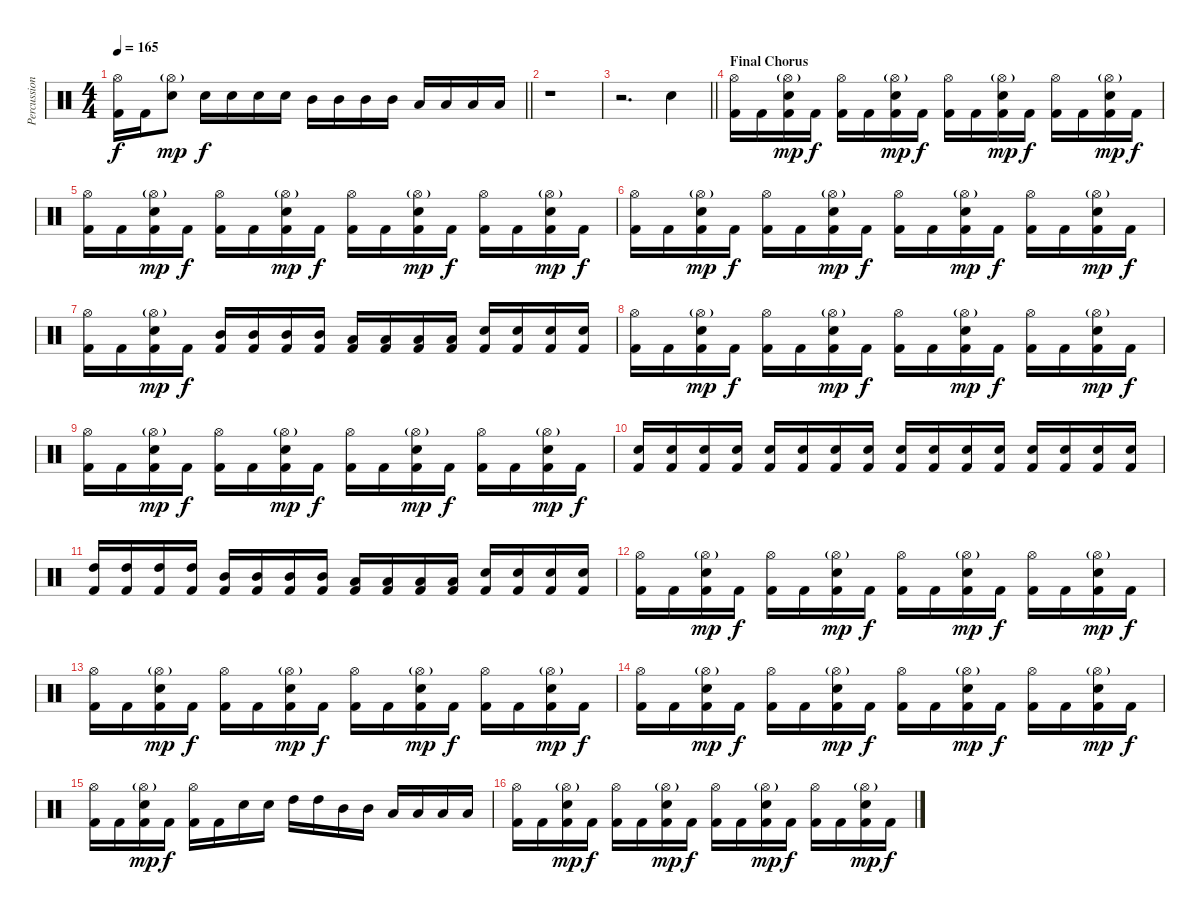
\track ("Percussion" "Percussion") {instrument percussion}
\staff {score}
\articulation defaults
\ts (4 4)
\tempo 165
\clef neutral
\barLineRight lightlight
\ks c
("Hi-Hat (open)" "Kick (hit) 2").16{dy f} "Kick (hit) 2".16 ("Hi-Hat (open)"{g} "Snare (hit) 2").8{dy mp} "Snare (hit) 2".16{dy f} "Snare (hit) 2".16 "Snare (hit) 2".16 "Snare (hit) 2".16 "Mid Tom (hit)".16 "Mid Tom (hit)".16 "Mid Tom (hit)".16 "Mid Tom (hit)".16 "Low Tom (hit)".16 "Low Tom (hit)".16 "Low Tom (hit)".16 "Low Tom (hit)".16 |
r.1 |
\barLineRight lightlight
r.2{d} "Hand Clap (hit)".4 |
\section ("" "Final Chorus")
("Hi-Hat (open)" "Kick (hit) 2").16 "Kick (hit) 2".16 ("Hi-Hat (open)"{g} "Snare (hit) 2" "Kick (hit) 2").16{dy mp} "Kick (hit) 2".16{dy f} ("Hi-Hat (open)" "Kick (hit) 2").16 "Kick (hit) 2".16 ("Hi-Hat (open)"{g} "Snare (hit) 2" "Kick (hit) 2").16{dy mp} "Kick (hit) 2".16{dy f} ("Hi-Hat (open)" "Kick (hit) 2").16 "Kick (hit) 2".16 ("Hi-Hat (open)"{g} "Snare (hit) 2" "Kick (hit) 2").16{dy mp} "Kick (hit) 2".16{dy f} ("Hi-Hat (open)" "Kick (hit) 2").16 "Kick (hit) 2".16 ("Hi-Hat (open)"{g} "Snare (hit) 2" "Kick (hit) 2").16{dy mp} "Kick (hit) 2".16{dy f} |
("Hi-Hat (open)" "Kick (hit) 2").16 "Kick (hit) 2".16 ("Hi-Hat (open)"{g} "Snare (hit) 2" "Kick (hit) 2").16{dy mp} "Kick (hit) 2".16{dy f} ("Hi-Hat (open)" "Kick (hit) 2").16 "Kick (hit) 2".16 ("Hi-Hat (open)"{g} "Snare (hit) 2" "Kick (hit) 2").16{dy mp} "Kick (hit) 2".16{dy f} ("Hi-Hat (open)" "Kick (hit) 2").16 "Kick (hit) 2".16 ("Hi-Hat (open)"{g} "Snare (hit) 2" "Kick (hit) 2").16{dy mp} "Kick (hit) 2".16{dy f} ("Hi-Hat (open)" "Kick (hit) 2").16 "Kick (hit) 2".16 ("Hi-Hat (open)"{g} "Snare (hit) 2" "Kick (hit) 2").16{dy mp} "Kick (hit) 2".16{dy f} |
("Hi-Hat (open)" "Kick (hit) 2").16 "Kick (hit) 2".16 ("Hi-Hat (open)"{g} "Snare (hit) 2" "Kick (hit) 2").16{dy mp} "Kick (hit) 2".16{dy f} ("Hi-Hat (open)" "Kick (hit) 2").16 "Kick (hit) 2".16 ("Hi-Hat (open)"{g} "Snare (hit) 2" "Kick (hit) 2").16{dy mp} "Kick (hit) 2".16{dy f} ("Hi-Hat (open)" "Kick (hit) 2").16 "Kick (hit) 2".16 ("Hi-Hat (open)"{g} "Snare (hit) 2" "Kick (hit) 2").16{dy mp} "Kick (hit) 2".16{dy f} ("Hi-Hat (open)" "Kick (hit) 2").16 "Kick (hit) 2".16 ("Hi-Hat (open)"{g} "Snare (hit) 2" "Kick (hit) 2").16{dy mp} "Kick (hit) 2".16{dy f} |
("Hi-Hat (open)" "Kick (hit) 2").16 "Kick (hit) 2".16 ("Hi-Hat (open)"{g} "Snare (hit) 2" "Kick (hit) 2").16{dy mp} "Kick (hit) 2".16{dy f} ("Mid Tom (hit)" "Kick (hit) 2").16 ("Mid Tom (hit)" "Kick (hit) 2").16 ("Mid Tom (hit)" "Kick (hit) 2").16 ("Mid Tom (hit)" "Kick (hit) 2").16 ("Low Tom (hit)" "Kick (hit) 2").16 ("Low Tom (hit)" "Kick (hit) 2").16 ("Low Tom (hit)" "Kick (hit) 2").16 ("Low Tom (hit)" "Kick (hit) 2").16 ("Snare (hit) 2" "Kick (hit) 2").16 ("Snare (hit) 2" "Kick (hit) 2").16 ("Snare (hit) 2" "Kick (hit) 2").16 ("Snare (hit) 2" "Kick (hit) 2").16 |
("Hi-Hat (open)" "Kick (hit) 2").16 "Kick (hit) 2".16 ("Hi-Hat (open)"{g} "Snare (hit) 2" "Kick (hit) 2").16{dy mp} "Kick (hit) 2".16{dy f} ("Hi-Hat (open)" "Kick (hit) 2").16 "Kick (hit) 2".16 ("Hi-Hat (open)"{g} "Snare (hit) 2" "Kick (hit) 2").16{dy mp} "Kick (hit) 2".16{dy f} ("Hi-Hat (open)" "Kick (hit) 2").16 "Kick (hit) 2".16 ("Hi-Hat (open)"{g} "Snare (hit) 2" "Kick (hit) 2").16{dy mp} "Kick (hit) 2".16{dy f} ("Hi-Hat (open)" "Kick (hit) 2").16 "Kick (hit) 2".16 ("Hi-Hat (open)"{g} "Snare (hit) 2" "Kick (hit) 2").16{dy mp} "Kick (hit) 2".16{dy f} |
("Hi-Hat (open)" "Kick (hit) 2").16 "Kick (hit) 2".16 ("Hi-Hat (open)"{g} "Snare (hit) 2" "Kick (hit) 2").16{dy mp} "Kick (hit) 2".16{dy f} ("Hi-Hat (open)" "Kick (hit) 2").16 "Kick (hit) 2".16 ("Hi-Hat (open)"{g} "Snare (hit) 2" "Kick (hit) 2").16{dy mp} "Kick (hit) 2".16{dy f} ("Hi-Hat (open)" "Kick (hit) 2").16 "Kick (hit) 2".16 ("Hi-Hat (open)"{g} "Snare (hit) 2" "Kick (hit) 2").16{dy mp} "Kick (hit) 2".16{dy f} ("Hi-Hat (open)" "Kick (hit) 2").16 "Kick (hit) 2".16 ("Hi-Hat (open)"{g} "Snare (hit) 2" "Kick (hit) 2").16{dy mp} "Kick (hit) 2".16{dy f} |
("Snare (hit) 2" "Kick (hit) 2").16 ("Snare (hit) 2" "Kick (hit) 2").16 ("Snare (hit) 2" "Kick (hit) 2").16 ("Snare (hit) 2" "Kick (hit) 2").16 ("Snare (hit) 2" "Kick (hit) 2").16 ("Snare (hit) 2" "Kick (hit) 2").16 ("Snare (hit) 2" "Kick (hit) 2").16 ("Snare (hit) 2" "Kick (hit) 2").16 ("Snare (hit) 2" "Kick (hit) 2").16 ("Snare (hit) 2" "Kick (hit) 2").16 ("Snare (hit) 2" "Kick (hit) 2").16 ("Snare (hit) 2" "Kick (hit) 2").16 ("Snare (hit) 2" "Kick (hit) 2").16 ("Snare (hit) 2" "Kick (hit) 2").16 ("Snare (hit) 2" "Kick (hit) 2").16 ("Snare (hit) 2" "Kick (hit) 2").16 |
("High Tom (hit)" "Kick (hit) 2").16 ("High Tom (hit)" "Kick (hit) 2").16 ("High Tom (hit)" "Kick (hit) 2").16 ("High Tom (hit)" "Kick (hit) 2").16 ("Mid Tom (hit)" "Kick (hit) 2").16 ("Mid Tom (hit)" "Kick (hit) 2").16 ("Mid Tom (hit)" "Kick (hit) 2").16 ("Mid Tom (hit)" "Kick (hit) 2").16 ("Low Tom (hit)" "Kick (hit) 2").16 ("Low Tom (hit)" "Kick (hit) 2").16 ("Low Tom (hit)" "Kick (hit) 2").16 ("Low Tom (hit)" "Kick (hit) 2").16 ("Snare (hit) 2" "Kick (hit) 2").16 ("Snare (hit) 2" "Kick (hit) 2").16 ("Snare (hit) 2" "Kick (hit) 2").16 ("Snare (hit) 2" "Kick (hit) 2").16 |
("Hi-Hat (open)" "Kick (hit) 2").16 "Kick (hit) 2".16 ("Hi-Hat (open)"{g} "Snare (hit) 2" "Kick (hit) 2").16{dy mp} "Kick (hit) 2".16{dy f} ("Hi-Hat (open)" "Kick (hit) 2").16 "Kick (hit) 2".16 ("Hi-Hat (open)"{g} "Snare (hit) 2" "Kick (hit) 2").16{dy mp} "Kick (hit) 2".16{dy f} ("Hi-Hat (open)" "Kick (hit) 2").16 "Kick (hit) 2".16 ("Hi-Hat (open)"{g} "Snare (hit) 2" "Kick (hit) 2").16{dy mp} "Kick (hit) 2".16{dy f} ("Hi-Hat (open)" "Kick (hit) 2").16 "Kick (hit) 2".16 ("Hi-Hat (open)"{g} "Snare (hit) 2" "Kick (hit) 2").16{dy mp} "Kick (hit) 2".16{dy f} |
("Hi-Hat (open)" "Kick (hit) 2").16 "Kick (hit) 2".16 ("Hi-Hat (open)"{g} "Snare (hit) 2" "Kick (hit) 2").16{dy mp} "Kick (hit) 2".16{dy f} ("Hi-Hat (open)" "Kick (hit) 2").16 "Kick (hit) 2".16 ("Hi-Hat (open)"{g} "Snare (hit) 2" "Kick (hit) 2").16{dy mp} "Kick (hit) 2".16{dy f} ("Hi-Hat (open)" "Kick (hit) 2").16 "Kick (hit) 2".16 ("Hi-Hat (open)"{g} "Snare (hit) 2" "Kick (hit) 2").16{dy mp} "Kick (hit) 2".16{dy f} ("Hi-Hat (open)" "Kick (hit) 2").16 "Kick (hit) 2".16 ("Hi-Hat (open)"{g} "Snare (hit) 2" "Kick (hit) 2").16{dy mp} "Kick (hit) 2".16{dy f} |
("Hi-Hat (open)" "Kick (hit) 2").16 "Kick (hit) 2".16 ("Hi-Hat (open)"{g} "Snare (hit) 2" "Kick (hit) 2").16{dy mp} "Kick (hit) 2".16{dy f} ("Hi-Hat (open)" "Kick (hit) 2").16 "Kick (hit) 2".16 ("Hi-Hat (open)"{g} "Snare (hit) 2" "Kick (hit) 2").16{dy mp} "Kick (hit) 2".16{dy f} ("Hi-Hat (open)" "Kick (hit) 2").16 "Kick (hit) 2".16 ("Hi-Hat (open)"{g} "Snare (hit) 2" "Kick (hit) 2").16{dy mp} "Kick (hit) 2".16{dy f} ("Hi-Hat (open)" "Kick (hit) 2").16 "Kick (hit) 2".16 ("Hi-Hat (open)"{g} "Snare (hit) 2" "Kick (hit) 2").16{dy mp} "Kick (hit) 2".16{dy f} |
("Hi-Hat (open)" "Kick (hit) 2").16 "Kick (hit) 2".16 ("Hi-Hat (open)"{g} "Snare (hit) 2" "Kick (hit) 2").16{dy mp} "Kick (hit) 2".16{dy f} ("Hi-Hat (open)" "Kick (hit) 2").16 "Kick (hit) 2".16 "Snare (hit) 2".16 "Snare (hit) 2".16 "High Tom (hit)".16 "High Tom (hit)".16 "Mid Tom (hit)".16 "Mid Tom (hit)".16 "Low Tom (hit)".16 "Low Tom (hit)".16 "Low Tom (hit)".16 "Low Tom (hit)".16 |
("Hi-Hat (open)" "Kick (hit) 2").16 "Kick (hit) 2".16 ("Hi-Hat (open)"{g} "Snare (hit) 2" "Kick (hit) 2").16{dy mp} "Kick (hit) 2".16{dy f} ("Hi-Hat (open)" "Kick (hit) 2").16 "Kick (hit) 2".16 ("Hi-Hat (open)"{g} "Snare (hit) 2" "Kick (hit) 2").16{dy mp} "Kick (hit) 2".16{dy f} ("Hi-Hat (open)" "Kick (hit) 2").16 "Kick (hit) 2".16 ("Hi-Hat (open)"{g} "Snare (hit) 2" "Kick (hit) 2").16{dy mp} "Kick (hit) 2".16{dy f} ("Hi-Hat (open)" "Kick (hit) 2").16 "Kick (hit) 2".16 ("Hi-Hat (open)"{g} "Snare (hit) 2" "Kick (hit) 2").16{dy mp} "Kick (hit) 2".16{dy f}
